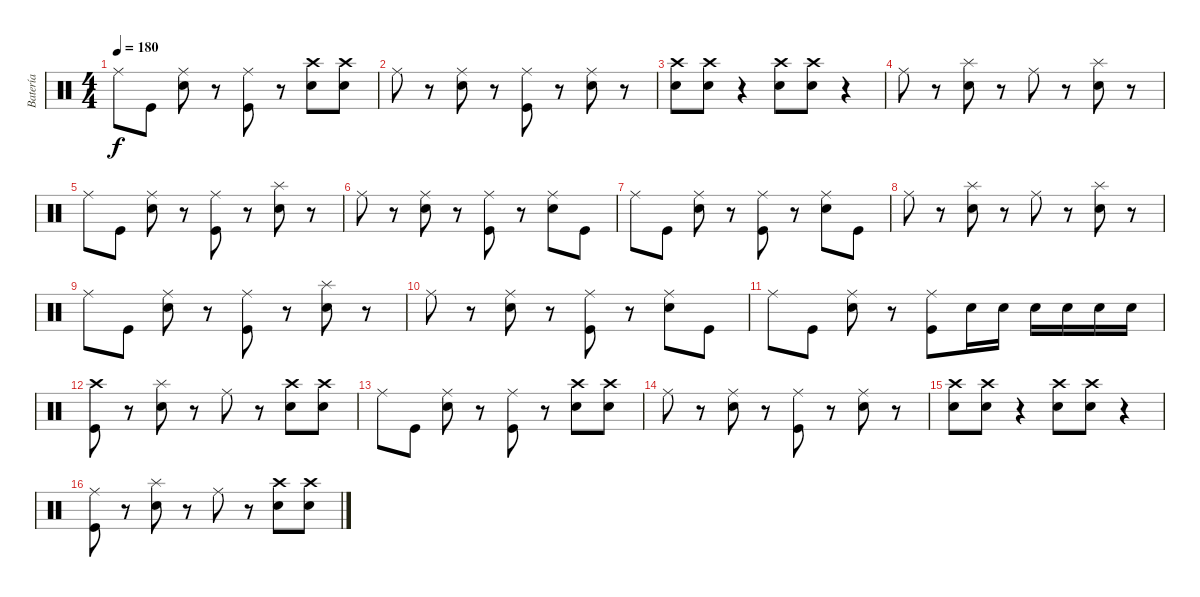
\track ("Batería" "Batería") {instrument percussion}
\staff {score}
\articulation defaults
\ts (4 4)
\tempo 180
\clef neutral
\ks c "Ride (middle)".8{dy f} "Kick (hit)".8
("Electric Snare (hit)" "Ride (middle)").8 r.8 ("Kick (hit)" "Ride (middle)").8 r.8 ("Electric Snare (hit)" "Crash high (hit)").8 ("Electric Snare (hit)" "Crash high (hit)").8 |
"Ride (middle)".8 r.8 ("Electric Snare (hit)" "Ride (middle)").8 r.8 ("Kick (hit)" "Ride (middle)").8 r.8 ("Electric Snare (hit)" "Ride (middle)").8 r.8 |
("Crash high (hit)" "Electric Snare (hit)").8 ("Crash high (hit)" "Electric Snare (hit)").8 r.4 ("Crash high (hit)" "Electric Snare (hit)").8 ("Crash high (hit)" "Electric Snare (hit)").8 r.4 |
"Ride (middle)".8 r.8 ("Electric Snare (hit)" "Splash (hit)").8 r.8 "Ride (middle)".8 r.8 ("Electric Snare (hit)" "Splash (hit)").8 r.8 |
"Ride (middle)".8 "Kick (hit)".8 ("Electric Snare (hit)" "Ride (middle)").8 r.8 ("Kick (hit)" "Ride (middle)").8 r.8 ("Electric Snare (hit)" "Splash (hit)").8 r.8 |
"Ride (middle)".8 r.8 ("Electric Snare (hit)" "Ride (middle)").8 r.8 ("Kick (hit)" "Ride (middle)").8 r.8 ("Electric Snare (hit)" "Ride (middle)").8 "Kick (hit)".8 |
"Ride (middle)".8 "Kick (hit)".8 ("Electric Snare (hit)" "Ride (middle)").8 r.8 ("Kick (hit)" "Ride (middle)").8 r.8 ("Electric Snare (hit)" "Ride (middle)").8 "Kick (hit)".8 |
"Ride (middle)".8 r.8 ("Electric Snare (hit)" "Splash (hit)").8 r.8 "Ride (middle)".8 r.8 ("Electric Snare (hit)" "Splash (hit)").8 r.8 |
"Ride (middle)".8 "Kick (hit)".8 ("Electric Snare (hit)" "Ride (middle)").8 r.8 ("Kick (hit)" "Ride (middle)").8 r.8 ("Electric Snare (hit)" "Splash (hit)").8 r.8 |
"Ride (middle)".8 r.8 ("Electric Snare (hit)" "Ride (middle)").8 r.8 ("Kick (hit)" "Ride (middle)").8 r.8 ("Electric Snare (hit)" "Ride (middle)").8 "Kick (hit)".8 |
"Ride (middle)".8 "Kick (hit)".8 ("Electric Snare (hit)" "Ride (middle)").8 r.8 ("Kick (hit)" "Ride (middle)").8 "Electric Snare (hit)".16 "Electric Snare (hit)".16 "Electric Snare (hit)".16 "Electric Snare (hit)".16 "Electric Snare (hit)".16 "Electric Snare (hit)".16 |
("Kick (hit)" "Crash high (hit)").8 r.8 ("Electric Snare (hit)" "Splash (hit)").8 r.8 "Ride (middle)".8 r.8 ("Electric Snare (hit)" "Crash high (hit)").8 ("Electric Snare (hit)" "Crash high (hit)").8 |
"Ride (middle)".8 "Kick (hit)".8 ("Electric Snare (hit)" "Ride (middle)").8 r.8 ("Kick (hit)" "Ride (middle)").8 r.8 ("Electric Snare (hit)" "Crash high (hit)").8 ("Electric Snare (hit)" "Crash high (hit)").8 |
"Ride (middle)".8 r.8 ("Electric Snare (hit)" "Ride (middle)").8 r.8 ("Kick (hit)" "Ride (middle)").8 r.8 ("Electric Snare (hit)" "Ride (middle)").8 r.8 |
("Crash high (hit)" "Electric Snare (hit)").8 ("Crash high (hit)" "Electric Snare (hit)").8 r.4 ("Crash high (hit)" "Electric Snare (hit)").8 ("Crash high (hit)" "Electric Snare (hit)").8 r.4 |
("Kick (hit)" "Ride (middle)").8 r.8 ("Electric Snare (hit)" "Splash (hit)").8 r.8 "Ride (middle)".8 r.8 ("Electric Snare (hit)" "Crash high (hit)").8 ("Electric Snare (hit)" "Crash high (hit)").8
